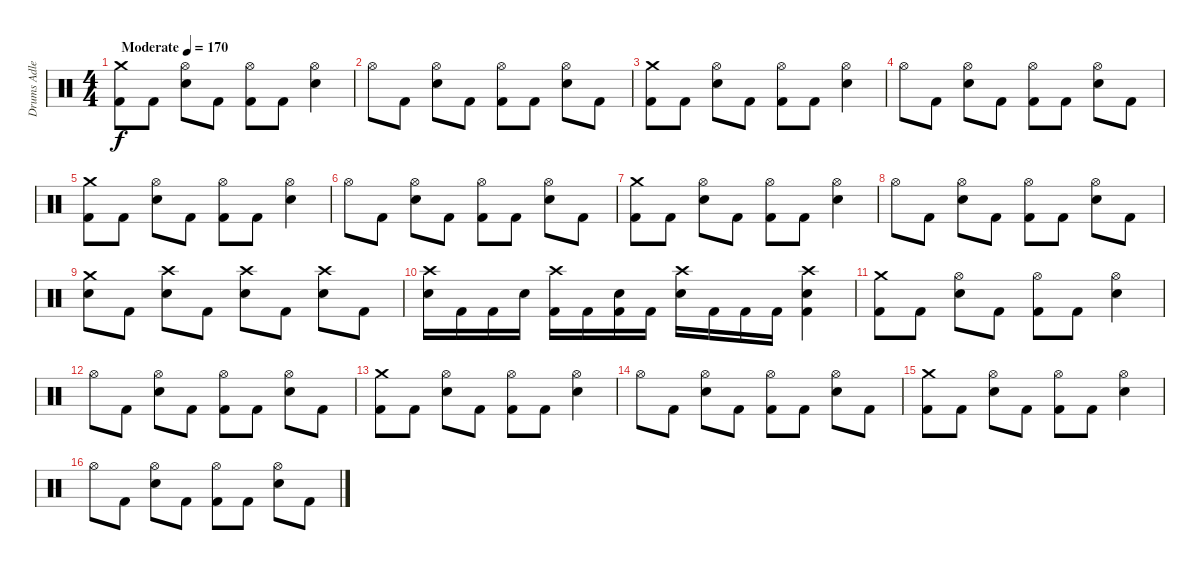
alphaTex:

\track ("Drums Adler" "Drums Adle") {instrument percussion}
\staff {score}
\articulation defaults
\ts (4 4)
\tempo (170 "Moderate")
\clef neutral
\ks c
("Crash medium (hit)" "Kick (hit) 2").8{dy f} "Kick (hit) 2".8 ("Hi-Hat (open)" "Snare (hit) 2").8 "Kick (hit) 2".8 ("Hi-Hat (open)" "Kick (hit) 2").8 "Kick (hit) 2".8 ("Hi-Hat (open)" "Snare (hit) 2").4 |
"Hi-Hat (open)".8 "Kick (hit) 2".8 ("Hi-Hat (open)" "Snare (hit) 2").8 "Kick (hit) 2".8 ("Hi-Hat (open)" "Kick (hit) 2").8 "Kick (hit) 2".8 ("Hi-Hat (open)" "Snare (hit) 2").8 "Kick (hit) 2".8 |
("Crash medium (hit)" "Kick (hit) 2").8 "Kick (hit) 2".8 ("Hi-Hat (open)" "Snare (hit) 2").8 "Kick (hit) 2".8 ("Hi-Hat (open)" "Kick (hit) 2").8 "Kick (hit) 2".8 ("Hi-Hat (open)" "Snare (hit) 2").4 |
"Hi-Hat (open)".8 "Kick (hit) 2".8 ("Hi-Hat (open)" "Snare (hit) 2").8 "Kick (hit) 2".8 ("Hi-Hat (open)" "Kick (hit) 2").8 "Kick (hit) 2".8 ("Hi-Hat (open)" "Snare (hit) 2").8 "Kick (hit) 2".8 |
("Crash medium (hit)" "Kick (hit) 2").8 "Kick (hit) 2".8 ("Hi-Hat (open)" "Snare (hit) 2").8 "Kick (hit) 2".8 ("Hi-Hat (open)" "Kick (hit) 2").8 "Kick (hit) 2".8 ("Hi-Hat (open)" "Snare (hit) 2").4 |
"Hi-Hat (open)".8 "Kick (hit) 2".8 ("Hi-Hat (open)" "Snare (hit) 2").8 "Kick (hit) 2".8 ("Hi-Hat (open)" "Kick (hit) 2").8 "Kick (hit) 2".8 ("Hi-Hat (open)" "Snare (hit) 2").8 "Kick (hit) 2".8 |
("Crash medium (hit)" "Kick (hit) 2").8 "Kick (hit) 2".8 ("Hi-Hat (open)" "Snare (hit) 2").8 "Kick (hit) 2".8 ("Hi-Hat (open)" "Kick (hit) 2").8 "Kick (hit) 2".8 ("Hi-Hat (open)" "Snare (hit) 2").4 |
"Hi-Hat (open)".8 "Kick (hit) 2".8 ("Hi-Hat (open)" "Snare (hit) 2").8 "Kick (hit) 2".8 ("Hi-Hat (open)" "Kick (hit) 2").8 "Kick (hit) 2".8 ("Hi-Hat (open)" "Snare (hit) 2").8 "Kick (hit) 2".8 |
("Crash medium (hit)" "Snare (hit) 2").8 "Kick (hit) 2".8 ("Crash high (hit)" "Snare (hit) 2").8 "Kick (hit) 2".8 ("Crash high (hit)" "Snare (hit) 2").8 "Kick (hit) 2".8 ("Crash high (hit)" "Snare (hit) 2").8 "Kick (hit) 2".8 |
("Crash high (hit)" "Snare (hit) 2").16 "Kick (hit) 2".16 "Kick (hit) 2".16 "Snare (hit) 2".16 ("Crash high (hit)" "Kick (hit) 2").16 "Kick (hit) 2".16 ("Snare (hit) 2" "Kick (hit) 2").16 "Kick (hit) 2".16 ("Crash high (hit)" "Snare (hit) 2").16 "Kick (hit) 2".16 "Kick (hit) 2".16 "Kick (hit) 2".16 ("Crash high (hit)" "Snare (hit) 2" "Kick (hit) 2").4 |
("Crash medium (hit)" "Kick (hit) 2").8 "Kick (hit) 2".8 ("Hi-Hat (open)" "Snare (hit) 2").8 "Kick (hit) 2".8 ("Hi-Hat (open)" "Kick (hit) 2").8 "Kick (hit) 2".8 ("Hi-Hat (open)" "Snare (hit) 2").4 |
"Hi-Hat (open)".8 "Kick (hit) 2".8 ("Hi-Hat (open)" "Snare (hit) 2").8 "Kick (hit) 2".8 ("Hi-Hat (open)" "Kick (hit) 2").8 "Kick (hit) 2".8 ("Hi-Hat (open)" "Snare (hit) 2").8 "Kick (hit) 2".8 |
("Crash medium (hit)" "Kick (hit) 2").8 "Kick (hit) 2".8 ("Hi-Hat (open)" "Snare (hit) 2").8 "Kick (hit) 2".8 ("Hi-Hat (open)" "Kick (hit) 2").8 "Kick (hit) 2".8 ("Hi-Hat (open)" "Snare (hit) 2").4 |
"Hi-Hat (open)".8 "Kick (hit) 2".8 ("Hi-Hat (open)" "Snare (hit) 2").8 "Kick (hit) 2".8 ("Hi-Hat (open)" "Kick (hit) 2").8 "Kick (hit) 2".8 ("Hi-Hat (open)" "Snare (hit) 2").8 "Kick (hit) 2".8 |
("Crash medium (hit)" "Kick (hit) 2").8 "Kick (hit) 2".8 ("Hi-Hat (open)" "Snare (hit) 2").8 "Kick (hit) 2".8 ("Hi-Hat (open)" "Kick (hit) 2").8 "Kick (hit) 2".8 ("Hi-Hat (open)" "Snare (hit) 2").4 |
"Hi-Hat (open)".8 "Kick (hit) 2".8 ("Hi-Hat (open)" "Snare (hit) 2").8 "Kick (hit) 2".8 ("Hi-Hat (open)" "Kick (hit) 2").8 "Kick (hit) 2".8 ("Hi-Hat (open)" "Snare (hit) 2").8 "Kick (hit) 2".8
